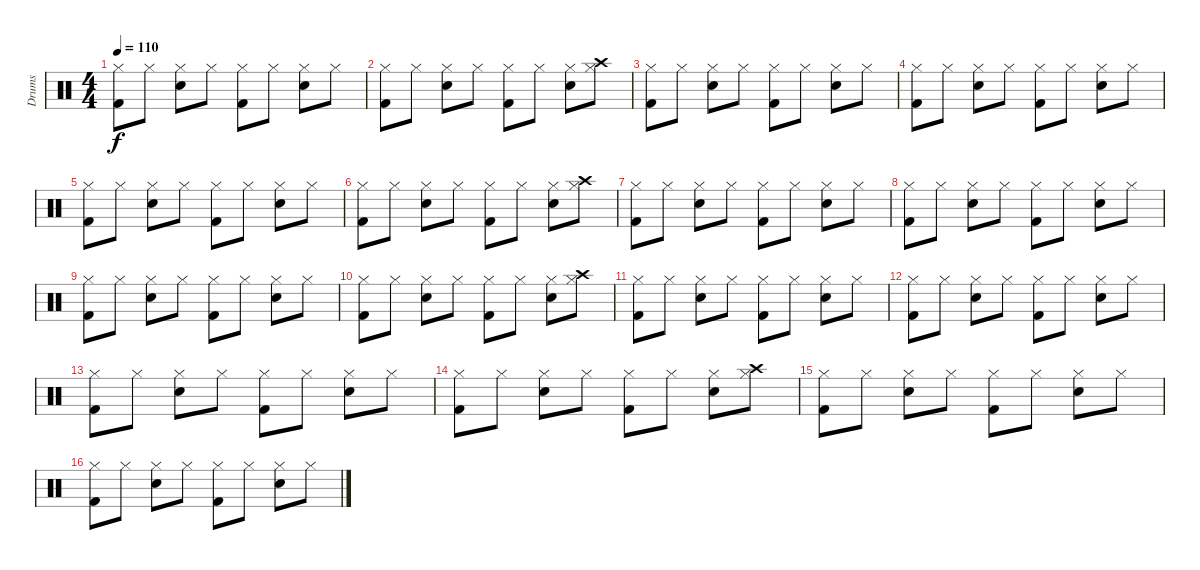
\track ("Drums" "Drums") {instrument percussion}
\staff {score}
\articulation defaults
\ts (4 4)
\tempo 110
\clef neutral
\ks c
("Hi-Hat (closed)" "Kick (hit) 2").8{dy f} "Hi-Hat (closed)".8 ("Hi-Hat (closed)" "Snare (hit) 2").8 "Hi-Hat (closed)".8 ("Hi-Hat (closed)" "Kick (hit) 2").8 "Hi-Hat (closed)".8 ("Hi-Hat (closed)" "Snare (hit) 2").8 "Hi-Hat (closed)".8 |
("Hi-Hat (closed)" "Kick (hit) 2").8 "Hi-Hat (closed)".8 ("Hi-Hat (closed)" "Snare (hit) 2").8 "Hi-Hat (closed)".8 ("Hi-Hat (closed)" "Kick (hit) 2").8 "Hi-Hat (closed)".8 ("Hi-Hat (closed)" "Snare (hit) 2").8 ("Hi-Hat (closed)" "Crash high (hit)").8 |
("Hi-Hat (closed)" "Kick (hit) 2").8 "Hi-Hat (closed)".8 ("Hi-Hat (closed)" "Snare (hit) 2").8 "Hi-Hat (closed)".8 ("Hi-Hat (closed)" "Kick (hit) 2").8 "Hi-Hat (closed)".8 ("Hi-Hat (closed)" "Snare (hit) 2").8 "Hi-Hat (closed)".8 |
("Hi-Hat (closed)" "Kick (hit) 2").8 "Hi-Hat (closed)".8 ("Hi-Hat (closed)" "Snare (hit) 2").8 "Hi-Hat (closed)".8 ("Hi-Hat (closed)" "Kick (hit) 2").8 "Hi-Hat (closed)".8 ("Hi-Hat (closed)" "Snare (hit) 2").8 "Hi-Hat (closed)".8 |
("Hi-Hat (closed)" "Kick (hit) 2").8 "Hi-Hat (closed)".8 ("Hi-Hat (closed)" "Snare (hit) 2").8 "Hi-Hat (closed)".8 ("Hi-Hat (closed)" "Kick (hit) 2").8 "Hi-Hat (closed)".8 ("Hi-Hat (closed)" "Snare (hit) 2").8 "Hi-Hat (closed)".8 |
("Hi-Hat (closed)" "Kick (hit) 2").8 "Hi-Hat (closed)".8 ("Hi-Hat (closed)" "Snare (hit) 2").8 "Hi-Hat (closed)".8 ("Hi-Hat (closed)" "Kick (hit) 2").8 "Hi-Hat (closed)".8 ("Hi-Hat (closed)" "Snare (hit) 2").8 ("Hi-Hat (closed)" "Crash high (hit)").8 |
("Hi-Hat (closed)" "Kick (hit) 2").8 "Hi-Hat (closed)".8 ("Hi-Hat (closed)" "Snare (hit) 2").8 "Hi-Hat (closed)".8 ("Hi-Hat (closed)" "Kick (hit) 2").8 "Hi-Hat (closed)".8 ("Hi-Hat (closed)" "Snare (hit) 2").8 "Hi-Hat (closed)".8 |
("Hi-Hat (closed)" "Kick (hit) 2").8 "Hi-Hat (closed)".8 ("Hi-Hat (closed)" "Snare (hit) 2").8 "Hi-Hat (closed)".8 ("Hi-Hat (closed)" "Kick (hit) 2").8 "Hi-Hat (closed)".8 ("Hi-Hat (closed)" "Snare (hit) 2").8 "Hi-Hat (closed)".8 |
("Hi-Hat (closed)" "Kick (hit) 2").8 "Hi-Hat (closed)".8 ("Hi-Hat (closed)" "Snare (hit) 2").8 "Hi-Hat (closed)".8 ("Hi-Hat (closed)" "Kick (hit) 2").8 "Hi-Hat (closed)".8 ("Hi-Hat (closed)" "Snare (hit) 2").8 "Hi-Hat (closed)".8 |
("Hi-Hat (closed)" "Kick (hit) 2").8 "Hi-Hat (closed)".8 ("Hi-Hat (closed)" "Snare (hit) 2").8 "Hi-Hat (closed)".8 ("Hi-Hat (closed)" "Kick (hit) 2").8 "Hi-Hat (closed)".8 ("Hi-Hat (closed)" "Snare (hit) 2").8 ("Hi-Hat (closed)" "Crash high (hit)").8 |
("Hi-Hat (closed)" "Kick (hit) 2").8 "Hi-Hat (closed)".8 ("Hi-Hat (closed)" "Snare (hit) 2").8 "Hi-Hat (closed)".8 ("Hi-Hat (closed)" "Kick (hit) 2").8 "Hi-Hat (closed)".8 ("Hi-Hat (closed)" "Snare (hit) 2").8 "Hi-Hat (closed)".8 |
("Hi-Hat (closed)" "Kick (hit) 2").8 "Hi-Hat (closed)".8 ("Hi-Hat (closed)" "Snare (hit) 2").8 "Hi-Hat (closed)".8 ("Hi-Hat (closed)" "Kick (hit) 2").8 "Hi-Hat (closed)".8 ("Hi-Hat (closed)" "Snare (hit) 2").8 "Hi-Hat (closed)".8 |
("Hi-Hat (closed)" "Kick (hit) 2").8 "Hi-Hat (closed)".8 ("Hi-Hat (closed)" "Snare (hit) 2").8 "Hi-Hat (closed)".8 ("Hi-Hat (closed)" "Kick (hit) 2").8 "Hi-Hat (closed)".8 ("Hi-Hat (closed)" "Snare (hit) 2").8 "Hi-Hat (closed)".8 |
("Hi-Hat (closed)" "Kick (hit) 2").8 "Hi-Hat (closed)".8 ("Hi-Hat (closed)" "Snare (hit) 2").8 "Hi-Hat (closed)".8 ("Hi-Hat (closed)" "Kick (hit) 2").8 "Hi-Hat (closed)".8 ("Hi-Hat (closed)" "Snare (hit) 2").8 ("Hi-Hat (closed)" "Crash high (hit)").8 |
("Hi-Hat (closed)" "Kick (hit) 2").8 "Hi-Hat (closed)".8 ("Hi-Hat (closed)" "Snare (hit) 2").8 "Hi-Hat (closed)".8 ("Hi-Hat (closed)" "Kick (hit) 2").8 "Hi-Hat (closed)".8 ("Hi-Hat (closed)" "Snare (hit) 2").8 "Hi-Hat (closed)".8 |
("Hi-Hat (closed)" "Kick (hit) 2").8 "Hi-Hat (closed)".8 ("Hi-Hat (closed)" "Snare (hit) 2").8 "Hi-Hat (closed)".8 ("Hi-Hat (closed)" "Kick (hit) 2").8 "Hi-Hat (closed)".8 ("Hi-Hat (closed)" "Snare (hit) 2").8 "Hi-Hat (closed)".8
